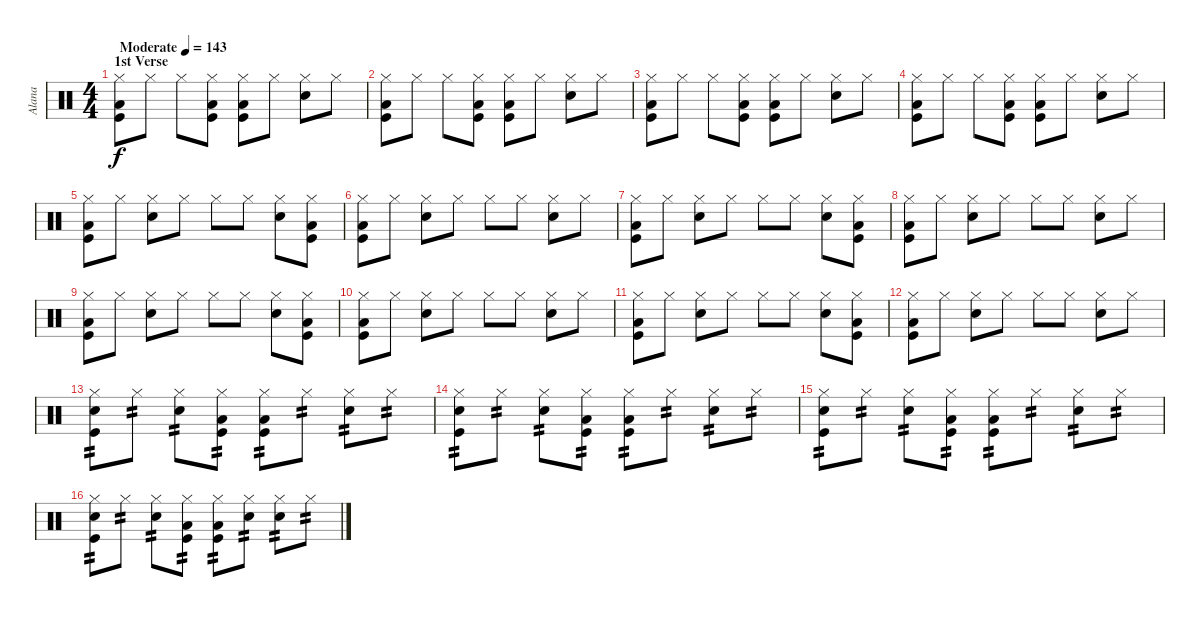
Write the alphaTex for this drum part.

\track ("Alana" "Alana") {instrument percussion}
\staff {score}
\articulation defaults
\ts (4 4)
\section ("" "1st Verse")
\tempo (143 "Moderate")
\clef neutral
\ks c
("Hi-Hat (closed)" "Low Floor Tom (hit)" "Kick (hit)").8{dy f} "Hi-Hat (closed)".8 "Hi-Hat (closed)".8 ("Hi-Hat (closed)" "Low Floor Tom (hit)" "Kick (hit)").8 ("Hi-Hat (closed)" "Low Floor Tom (hit)" "Kick (hit)").8 "Hi-Hat (closed)".8 ("Hi-Hat (closed)" "Electric Snare (hit)").8 "Hi-Hat (closed)".8 |
("Hi-Hat (closed)" "Low Floor Tom (hit)" "Kick (hit)").8 "Hi-Hat (closed)".8 "Hi-Hat (closed)".8 ("Hi-Hat (closed)" "Low Floor Tom (hit)" "Kick (hit)").8 ("Hi-Hat (closed)" "Low Floor Tom (hit)" "Kick (hit)").8 "Hi-Hat (closed)".8 ("Hi-Hat (closed)" "Electric Snare (hit)").8 "Hi-Hat (closed)".8 |
("Hi-Hat (closed)" "Low Floor Tom (hit)" "Kick (hit)").8 "Hi-Hat (closed)".8 "Hi-Hat (closed)".8 ("Hi-Hat (closed)" "Low Floor Tom (hit)" "Kick (hit)").8 ("Hi-Hat (closed)" "Low Floor Tom (hit)" "Kick (hit)").8 "Hi-Hat (closed)".8 ("Hi-Hat (closed)" "Electric Snare (hit)").8 "Hi-Hat (closed)".8 |
("Hi-Hat (closed)" "Low Floor Tom (hit)" "Kick (hit)").8 "Hi-Hat (closed)".8 "Hi-Hat (closed)".8 ("Hi-Hat (closed)" "Low Floor Tom (hit)" "Kick (hit)").8 ("Hi-Hat (closed)" "Low Floor Tom (hit)" "Kick (hit)").8 "Hi-Hat (closed)".8 ("Hi-Hat (closed)" "Electric Snare (hit)").8 "Hi-Hat (closed)".8 |
("Hi-Hat (closed)" "Low Floor Tom (hit)" "Kick (hit)").8 "Hi-Hat (closed)".8 ("Hi-Hat (closed)" "Electric Snare (hit)").8 "Hi-Hat (closed)".8 "Hi-Hat (closed)".8 "Hi-Hat (closed)".8 ("Hi-Hat (closed)" "Electric Snare (hit)").8 ("Hi-Hat (closed)" "Low Floor Tom (hit)" "Kick (hit)").8 |
("Hi-Hat (closed)" "Low Floor Tom (hit)" "Kick (hit)").8 "Hi-Hat (closed)".8 ("Hi-Hat (closed)" "Electric Snare (hit)").8 "Hi-Hat (closed)".8 "Hi-Hat (closed)".8 "Hi-Hat (closed)".8 ("Hi-Hat (closed)" "Electric Snare (hit)").8 "Hi-Hat (closed)".8 |
("Hi-Hat (closed)" "Low Floor Tom (hit)" "Kick (hit)").8 "Hi-Hat (closed)".8 ("Hi-Hat (closed)" "Electric Snare (hit)").8 "Hi-Hat (closed)".8 "Hi-Hat (closed)".8 "Hi-Hat (closed)".8 ("Hi-Hat (closed)" "Electric Snare (hit)").8 ("Hi-Hat (closed)" "Low Floor Tom (hit)" "Kick (hit)").8 |
("Hi-Hat (closed)" "Low Floor Tom (hit)" "Kick (hit)").8 "Hi-Hat (closed)".8 ("Hi-Hat (closed)" "Electric Snare (hit)").8 "Hi-Hat (closed)".8 "Hi-Hat (closed)".8 "Hi-Hat (closed)".8 ("Hi-Hat (closed)" "Electric Snare (hit)").8 "Hi-Hat (closed)".8 |
("Hi-Hat (closed)" "Low Floor Tom (hit)" "Kick (hit)").8 "Hi-Hat (closed)".8 ("Hi-Hat (closed)" "Electric Snare (hit)").8 "Hi-Hat (closed)".8 "Hi-Hat (closed)".8 "Hi-Hat (closed)".8 ("Hi-Hat (closed)" "Electric Snare (hit)").8 ("Hi-Hat (closed)" "Low Floor Tom (hit)" "Kick (hit)").8 |
("Hi-Hat (closed)" "Low Floor Tom (hit)" "Kick (hit)").8 "Hi-Hat (closed)".8 ("Hi-Hat (closed)" "Electric Snare (hit)").8 "Hi-Hat (closed)".8 "Hi-Hat (closed)".8 "Hi-Hat (closed)".8 ("Hi-Hat (closed)" "Electric Snare (hit)").8 "Hi-Hat (closed)".8 |
("Hi-Hat (closed)" "Low Floor Tom (hit)" "Kick (hit)").8 "Hi-Hat (closed)".8 ("Hi-Hat (closed)" "Electric Snare (hit)").8 "Hi-Hat (closed)".8 "Hi-Hat (closed)".8 "Hi-Hat (closed)".8 ("Hi-Hat (closed)" "Electric Snare (hit)").8 ("Hi-Hat (closed)" "Low Floor Tom (hit)" "Kick (hit)").8 |
("Hi-Hat (closed)" "Low Floor Tom (hit)" "Kick (hit)").8 "Hi-Hat (closed)".8 ("Hi-Hat (closed)" "Electric Snare (hit)").8 "Hi-Hat (closed)".8 "Hi-Hat (closed)".8 "Hi-Hat (closed)".8 ("Hi-Hat (closed)" "Electric Snare (hit)").8 "Hi-Hat (closed)".8 |
("Hi-Hat (closed)" "Snare (hit)" "Kick (hit)").8{tp 2} "Hi-Hat (closed)".8{tp 2} ("Hi-Hat (closed)" "Electric Snare (hit)").8{tp 2} ("Hi-Hat (closed)" "Low Floor Tom (hit)" "Kick (hit)").8{tp 2} ("Hi-Hat (closed)" "Low Floor Tom (hit)" "Kick (hit)").8{tp 2} "Hi-Hat (closed)".8{tp 2} ("Hi-Hat (closed)" "Electric Snare (hit)").8{tp 2} "Hi-Hat (closed)".8{tp 2} |
("Hi-Hat (closed)" "Snare (hit)" "Kick (hit)").8{tp 2} "Hi-Hat (closed)".8{tp 2} ("Hi-Hat (closed)" "Electric Snare (hit)").8{tp 2} ("Hi-Hat (closed)" "Low Floor Tom (hit)" "Kick (hit)").8{tp 2} ("Hi-Hat (closed)" "Low Floor Tom (hit)" "Kick (hit)").8{tp 2} "Hi-Hat (closed)".8{tp 2} ("Hi-Hat (closed)" "Electric Snare (hit)").8{tp 2} "Hi-Hat (closed)".8{tp 2} |
("Hi-Hat (closed)" "Snare (hit)" "Kick (hit)").8{tp 2} "Hi-Hat (closed)".8{tp 2} ("Hi-Hat (closed)" "Electric Snare (hit)").8{tp 2} ("Hi-Hat (closed)" "Low Floor Tom (hit)" "Kick (hit)").8{tp 2} ("Hi-Hat (closed)" "Low Floor Tom (hit)" "Kick (hit)").8{tp 2} "Hi-Hat (closed)".8{tp 2} ("Hi-Hat (closed)" "Electric Snare (hit)").8{tp 2} "Hi-Hat (closed)".8{tp 2} |
("Hi-Hat (closed)" "Snare (hit)" "Kick (hit)").8{tp 2} "Hi-Hat (closed)".8{tp 2} ("Hi-Hat (closed)" "Electric Snare (hit)").8{tp 2} ("Hi-Hat (closed)" "Low Floor Tom (hit)" "Kick (hit)").8{tp 2} ("Hi-Hat (closed)" "Low Floor Tom (hit)" "Kick (hit)").8{tp 2} ("Hi-Hat (closed)" "Hand Clap (hit)").8{tp 2} ("Hi-Hat (closed)" "Hand Clap (hit)").8{tp 2} "Hi-Hat (closed)".8{tp 2}
